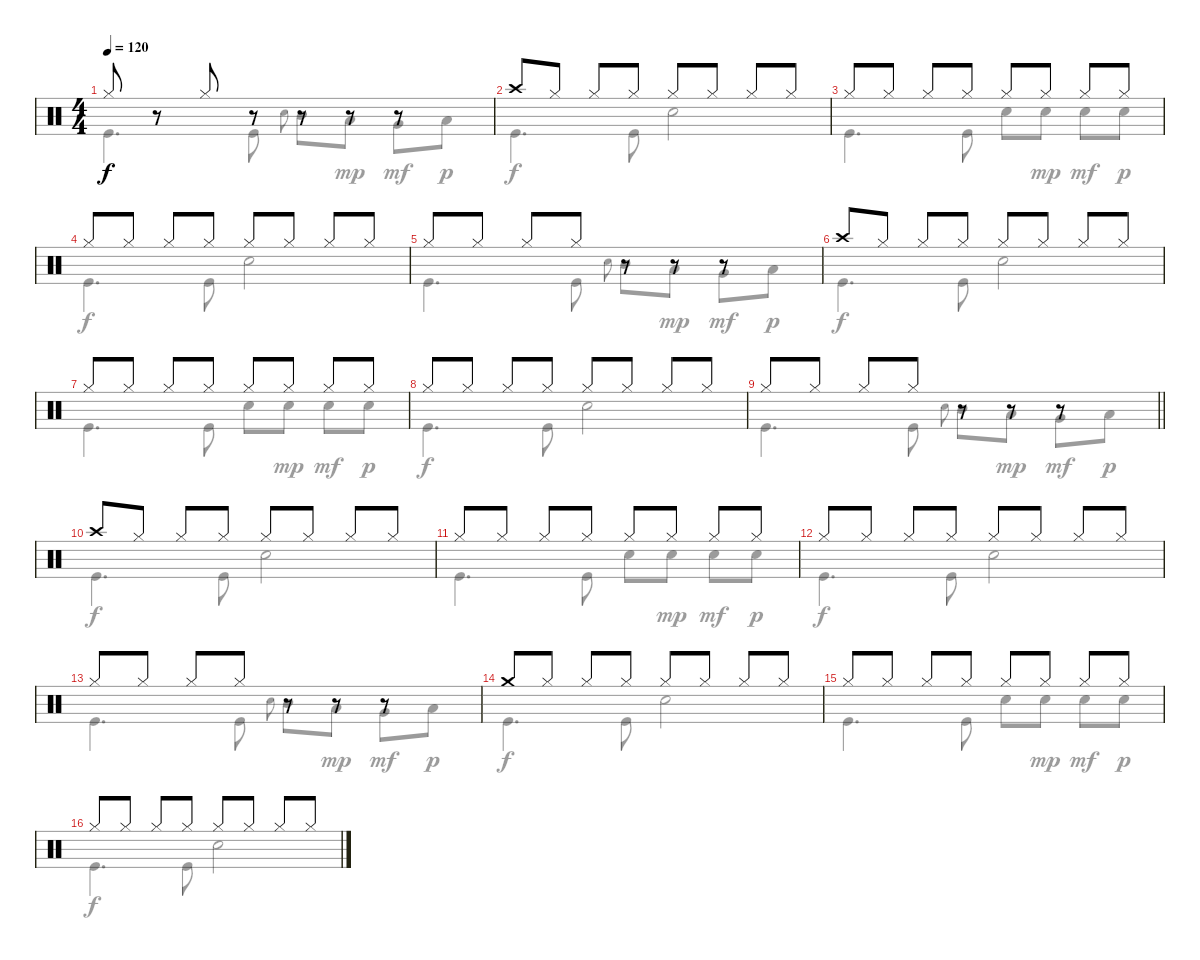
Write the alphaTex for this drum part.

\track "" {instrument percussion}
\staff {score}
\articulation defaults
\voice
\ts (4 4)
\tempo 120
\clef neutral
\ks c "Hi-Hat (closed)".8{dy f}
r.8 "Hi-Hat (closed)".8 r.8 r.8 r.8 r.8 |
"Crash high (hit)".8 "Hi-Hat (closed)".8 "Hi-Hat (closed)".8 "Hi-Hat (closed)".8 "Hi-Hat (closed)".8 "Hi-Hat (closed)".8 "Hi-Hat (closed)".8 "Hi-Hat (closed)".8 |
"Hi-Hat (closed)".8 "Hi-Hat (closed)".8 "Hi-Hat (closed)".8 "Hi-Hat (closed)".8 "Hi-Hat (closed)".8 "Hi-Hat (closed)".8 "Hi-Hat (closed)".8 "Hi-Hat (closed)".8 |
"Hi-Hat (closed)".8 "Hi-Hat (closed)".8 "Hi-Hat (closed)".8 "Hi-Hat (closed)".8 "Hi-Hat (closed)".8 "Hi-Hat (closed)".8 "Hi-Hat (closed)".8 "Hi-Hat (closed)".8 |
"Hi-Hat (closed)".8 "Hi-Hat (closed)".8 "Hi-Hat (closed)".8 "Hi-Hat (closed)".8 r.8 r.8 r.8 |
"Crash high (hit)".8 "Hi-Hat (closed)".8 "Hi-Hat (closed)".8 "Hi-Hat (closed)".8 "Hi-Hat (closed)".8 "Hi-Hat (closed)".8 "Hi-Hat (closed)".8 "Hi-Hat (closed)".8 |
"Hi-Hat (closed)".8 "Hi-Hat (closed)".8 "Hi-Hat (closed)".8 "Hi-Hat (closed)".8 "Hi-Hat (closed)".8 "Hi-Hat (closed)".8 "Hi-Hat (closed)".8 "Hi-Hat (closed)".8 |
"Hi-Hat (closed)".8 "Hi-Hat (closed)".8 "Hi-Hat (closed)".8 "Hi-Hat (closed)".8 "Hi-Hat (closed)".8 "Hi-Hat (closed)".8 "Hi-Hat (closed)".8 "Hi-Hat (closed)".8 |
\barLineRight lightlight "Hi-Hat (closed)".8 "Hi-Hat (closed)".8 "Hi-Hat (closed)".8 "Hi-Hat (closed)".8
r.8 r.8 r.8 |
"Crash high (hit)".8 "Hi-Hat (closed)".8 "Hi-Hat (closed)".8 "Hi-Hat (closed)".8 "Hi-Hat (closed)".8 "Hi-Hat (closed)".8 "Hi-Hat (closed)".8 "Hi-Hat (closed)".8 |
"Hi-Hat (closed)".8 "Hi-Hat (closed)".8 "Hi-Hat (closed)".8 "Hi-Hat (closed)".8 "Hi-Hat (closed)".8 "Hi-Hat (closed)".8 "Hi-Hat (closed)".8 "Hi-Hat (closed)".8 |
"Hi-Hat (closed)".8 "Hi-Hat (closed)".8 "Hi-Hat (closed)".8 "Hi-Hat (closed)".8 "Hi-Hat (closed)".8 "Hi-Hat (closed)".8 "Hi-Hat (closed)".8 "Hi-Hat (closed)".8 |
"Hi-Hat (closed)".8 "Hi-Hat (closed)".8 "Hi-Hat (closed)".8 "Hi-Hat (closed)".8 r.8 r.8 r.8 |
"Crash medium (hit)".8 "Hi-Hat (closed)".8 "Hi-Hat (closed)".8 "Hi-Hat (closed)".8 "Hi-Hat (closed)".8 "Hi-Hat (closed)".8 "Hi-Hat (closed)".8 "Hi-Hat (closed)".8 |
"Hi-Hat (closed)".8 "Hi-Hat (closed)".8 "Hi-Hat (closed)".8 "Hi-Hat (closed)".8 "Hi-Hat (closed)".8 "Hi-Hat (closed)".8 "Hi-Hat (closed)".8 "Hi-Hat (closed)".8 |
"Hi-Hat (closed)".8 "Hi-Hat (closed)".8 "Hi-Hat (closed)".8 "Hi-Hat (closed)".8 "Hi-Hat (closed)".8 "Hi-Hat (closed)".8 "Hi-Hat (closed)".8 "Hi-Hat (closed)".8
\voice
\clef neutral
\ottava regular
\simile none
\ks c "Kick (hit)".4{d dy f} "Kick (hit)".8 "Snare (hit) 2".8{gr onbeat} "Mid Tom (hit)".8 "Low Tom (hit)".8{dy mp} "Very Low Tom (hit)".8{dy mf} "Low Floor Tom (hit)".8{dy p}
|
"Kick (hit)".4{d dy f} "Kick (hit)".8 "Snare (hit) 2".2 |
"Kick (hit)".4{d} "Kick (hit)".8 "Snare (hit) 2".8 "Snare (hit) 2".8{dy mp} "Snare (hit) 2".8{dy mf} "Snare (hit) 2".8{dy p} |
"Kick (hit)".4{d dy f} "Kick (hit)".8 "Snare (hit) 2".2 |
"Kick (hit)".4{d} "Kick (hit)".8 "Snare (hit) 2".8{gr onbeat} "Mid Tom (hit)".8 "Low Tom (hit)".8{dy mp} "Very Low Tom (hit)".8{dy mf} "Low Floor Tom (hit)".8{dy p} |
"Kick (hit)".4{d dy f} "Kick (hit)".8 "Snare (hit) 2".2 |
"Kick (hit)".4{d} "Kick (hit)".8 "Snare (hit) 2".8 "Snare (hit) 2".8{dy mp} "Snare (hit) 2".8{dy mf} "Snare (hit) 2".8{dy p} |
"Kick (hit)".4{d dy f} "Kick (hit)".8 "Snare (hit) 2".2 |
\barLineRight lightlight "Kick (hit)".4{d} "Kick (hit)".8 "Snare (hit) 2".8{gr onbeat} "Mid Tom (hit)".8 "Low Tom (hit)".8{dy mp} "Very Low Tom (hit)".8{dy mf} "Low Floor Tom (hit)".8{dy p}
|
"Kick (hit)".4{d dy f} "Kick (hit)".8 "Snare (hit) 2".2 |
"Kick (hit)".4{d} "Kick (hit)".8 "Snare (hit) 2".8 "Snare (hit) 2".8{dy mp} "Snare (hit) 2".8{dy mf} "Snare (hit) 2".8{dy p} |
"Kick (hit)".4{d dy f} "Kick (hit)".8 "Snare (hit) 2".2 |
"Kick (hit)".4{d} "Kick (hit)".8 "Snare (hit) 2".8{gr onbeat} "Mid Tom (hit)".8 "Low Tom (hit)".8{dy mp} "Very Low Tom (hit)".8{dy mf} "Low Floor Tom (hit)".8{dy p} |
"Kick (hit)".4{d dy f} "Kick (hit)".8 "Snare (hit) 2".2 |
"Kick (hit)".4{d} "Kick (hit)".8 "Snare (hit) 2".8 "Snare (hit) 2".8{dy mp} "Snare (hit) 2".8{dy mf} "Snare (hit) 2".8{dy p} |
"Kick (hit)".4{d dy f} "Kick (hit)".8 "Snare (hit) 2".2
